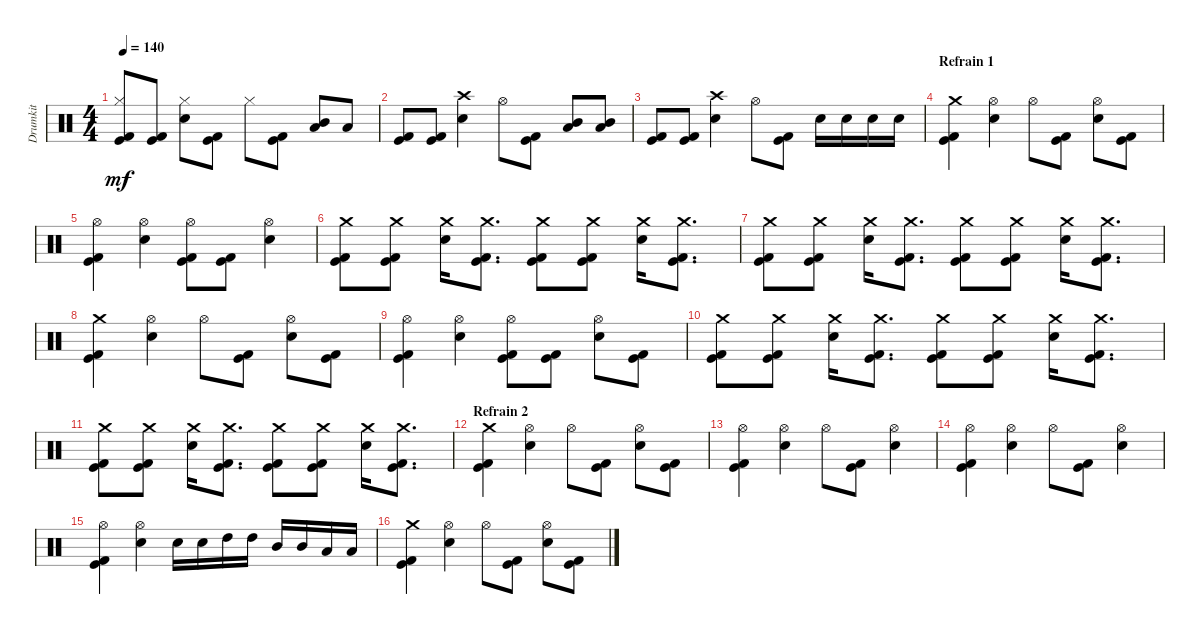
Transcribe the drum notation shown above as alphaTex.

\track ("Drumkit" "Drumkit") {instrument percussion}
\staff {score}
\articulation defaults
\ts (4 4)
\tempo 140
\clef neutral
\ks c
("Kick (hit) 2" "Hi-Hat (closed)" "Kick (hit)").8{dy mf} ("Kick (hit) 2" "Kick (hit)").8 ("Hi-Hat (closed)" "Snare (hit) 2").8 ("Kick (hit) 2" "Kick (hit)").8 "Hi-Hat (closed)".8 ("Kick (hit) 2" "Kick (hit)").8 ("Mid Tom (hit)" "Low Tom (hit)").8 "Low Tom (hit)".8 |
("Kick (hit) 2" "Kick (hit)").8 ("Kick (hit) 2" "Kick (hit)").8 ("Crash high (hit)" "Snare (hit) 2").4 "Hi-Hat (open)".8 ("Kick (hit) 2" "Kick (hit)").8 ("Mid Tom (hit)" "Low Tom (hit)").8 ("Mid Tom (hit)" "Low Tom (hit)").8 |
("Kick (hit) 2" "Kick (hit)").8 ("Kick (hit) 2" "Kick (hit)").8 ("Crash high (hit)" "Snare (hit) 2").4 "Hi-Hat (open)".8 ("Kick (hit) 2" "Kick (hit)").8 "Snare (hit) 2".16 "Snare (hit) 2".16 "Snare (hit) 2".16 "Snare (hit) 2".16 |
\section ("" "Refrain 1")
("Crash medium (hit)" "Kick (hit) 2" "Kick (hit)").4 ("Hi-Hat (open)" "Snare (hit) 2").4 "Hi-Hat (open)".8 ("Kick (hit) 2" "Kick (hit)").8 ("Hi-Hat (open)" "Snare (hit) 2").8 ("Kick (hit) 2" "Kick (hit)").8 |
("Kick (hit) 2" "Hi-Hat (open)" "Kick (hit)").4 ("Hi-Hat (open)" "Snare (hit) 2").4 ("Kick (hit) 2" "Hi-Hat (open)" "Kick (hit)").8 ("Kick (hit) 2" "Kick (hit)").8 ("Hi-Hat (open)" "Snare (hit) 2").4 |
("Crash medium (hit)" "Kick (hit) 2" "Kick (hit)").8 ("Crash medium (hit)" "Kick (hit) 2" "Kick (hit)").8 ("Crash medium (hit)" "Snare (hit) 2").16 ("Crash medium (hit)" "Kick (hit) 2" "Kick (hit)").8{d} ("Crash medium (hit)" "Kick (hit) 2" "Kick (hit)").8 ("Crash medium (hit)" "Kick (hit) 2" "Kick (hit)").8 ("Crash medium (hit)" "Snare (hit) 2").16 ("Crash medium (hit)" "Kick (hit) 2" "Kick (hit)").8{d} |
("Crash medium (hit)" "Kick (hit) 2" "Kick (hit)").8 ("Crash medium (hit)" "Kick (hit) 2" "Kick (hit)").8 ("Crash medium (hit)" "Snare (hit) 2").16 ("Crash medium (hit)" "Kick (hit) 2" "Kick (hit)").8{d} ("Crash medium (hit)" "Kick (hit) 2" "Kick (hit)").8 ("Crash medium (hit)" "Kick (hit) 2" "Kick (hit)").8 ("Crash medium (hit)" "Snare (hit) 2").16 ("Crash medium (hit)" "Kick (hit) 2" "Kick (hit)").8{d} |
("Crash medium (hit)" "Kick (hit) 2" "Kick (hit)").4 ("Hi-Hat (open)" "Snare (hit) 2").4 "Hi-Hat (open)".8 ("Kick (hit) 2" "Kick (hit)").8 ("Hi-Hat (open)" "Snare (hit) 2").8 ("Kick (hit) 2" "Kick (hit)").8 |
("Kick (hit) 2" "Hi-Hat (open)" "Kick (hit)").4 ("Hi-Hat (open)" "Snare (hit) 2").4 ("Kick (hit) 2" "Hi-Hat (open)" "Kick (hit)").8 ("Kick (hit) 2" "Kick (hit)").8 ("Hi-Hat (open)" "Snare (hit) 2").8 ("Kick (hit) 2" "Kick (hit)").8 |
("Crash medium (hit)" "Kick (hit) 2" "Kick (hit)").8 ("Crash medium (hit)" "Kick (hit) 2" "Kick (hit)").8 ("Crash medium (hit)" "Snare (hit) 2").16 ("Crash medium (hit)" "Kick (hit) 2" "Kick (hit)").8{d} ("Crash medium (hit)" "Kick (hit) 2" "Kick (hit)").8 ("Crash medium (hit)" "Kick (hit) 2" "Kick (hit)").8 ("Crash medium (hit)" "Snare (hit) 2").16 ("Crash medium (hit)" "Kick (hit) 2" "Kick (hit)").8{d} |
("Crash medium (hit)" "Kick (hit) 2" "Kick (hit)").8 ("Crash medium (hit)" "Kick (hit) 2" "Kick (hit)").8 ("Crash medium (hit)" "Snare (hit) 2").16 ("Crash medium (hit)" "Kick (hit) 2" "Kick (hit)").8{d} ("Crash medium (hit)" "Kick (hit) 2" "Kick (hit)").8 ("Crash medium (hit)" "Kick (hit) 2" "Kick (hit)").8 ("Crash medium (hit)" "Snare (hit) 2").16 ("Crash medium (hit)" "Kick (hit) 2" "Kick (hit)").8{d} |
\section ("" "Refrain 2")
("Crash medium (hit)" "Kick (hit) 2" "Kick (hit)").4 ("Hi-Hat (open)" "Snare (hit) 2").4 "Hi-Hat (open)".8 ("Kick (hit) 2" "Kick (hit)").8 ("Hi-Hat (open)" "Snare (hit) 2").8 ("Kick (hit) 2" "Kick (hit)").8 |
("Kick (hit) 2" "Hi-Hat (open)" "Kick (hit)").4 ("Hi-Hat (open)" "Snare (hit) 2").4 "Hi-Hat (open)".8 ("Kick (hit) 2" "Kick (hit)").8 ("Hi-Hat (open)" "Snare (hit) 2").4 |
("Kick (hit) 2" "Hi-Hat (open)" "Kick (hit)").4 ("Hi-Hat (open)" "Snare (hit) 2").4 "Hi-Hat (open)".8 ("Kick (hit) 2" "Kick (hit)").8 ("Hi-Hat (open)" "Snare (hit) 2").4 |
("Kick (hit) 2" "Hi-Hat (open)" "Kick (hit)").4 ("Hi-Hat (open)" "Snare (hit) 2").4 "Snare (hit) 2".16 "Snare (hit) 2".16 "High Tom (hit)".16 "High Tom (hit)".16 "Mid Tom (hit)".16 "Mid Tom (hit)".16 "Low Tom (hit)".16 "Low Tom (hit)".16 |
("Crash medium (hit)" "Kick (hit) 2" "Kick (hit)").4 ("Hi-Hat (open)" "Snare (hit) 2").4 "Hi-Hat (open)".8 ("Kick (hit) 2" "Kick (hit)").8 ("Hi-Hat (open)" "Snare (hit) 2").8 ("Kick (hit) 2" "Kick (hit)").8
